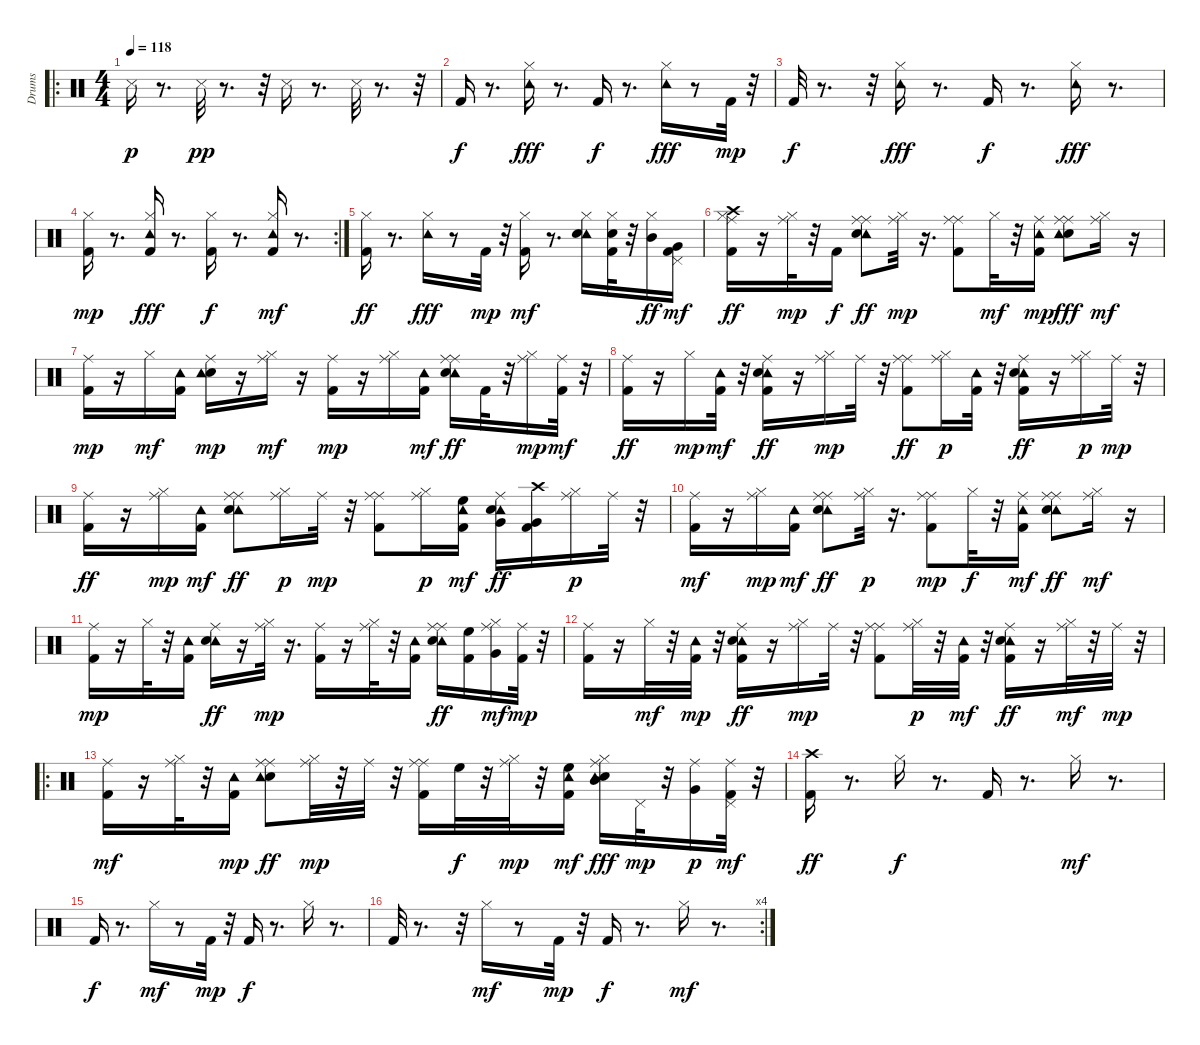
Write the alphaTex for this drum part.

\track ("Drums" "Drums") {instrument percussion}
\staff {score}
\articulation defaults
\ro
\ts (4 4)
\tempo 118
\clef neutral
\ks c "Snare (side stick) 3".16{dy p}
r.8{d} "Snare (side stick) 3".32{dy pp} r.8{d} r.32 "Snare (side stick) 3".16 r.8{d} "Snare (side stick) 3".32 r.8{d} r.32 |
"Kick (hit) 2".16{dy f} r.8{d} ("Hi-Hat (closed)" "Tambourine (hit)").16{dy fff} r.8{d} "Kick (hit) 2".16{dy f} r.8{d} ("Tambourine (hit)" "Hi-Hat (closed)").16{dy fff} r.8 "Kick (hit) 2".32{dy mp} r.32 |
"Kick (hit) 2".32{dy f} r.8{d} r.32 ("Hi-Hat (closed)" "Tambourine (hit)").16{dy fff} r.8{d} "Kick (hit) 2".16{dy f} r.8{d} ("Hi-Hat (closed)" "Tambourine (hit)").16{dy fff} r.8{d} |
\rc 2
("Hi-Hat (closed)" "Kick (hit) 2").16{dy mp} r.8{d} ("Kick (hit) 2" "Hi-Hat (closed)" "Tambourine (hit)").16{dy fff} r.8{d} ("Kick (hit) 2" "Hi-Hat (closed)").16{dy f} r.8{d} ("Tambourine (hit)" "Kick (hit) 2" "Hi-Hat (closed)").16{dy mf} r.8{d} |
("Hi-Hat (closed)" "Kick (hit) 2").16{dy ff} r.8{d} ("Hi-Hat (closed)" "Tambourine (hit)").16{dy fff} r.8 "Kick (hit) 2".32{dy mp} r.32 ("Kick (hit) 2" "Hi-Hat (closed)").16{dy mf} r.8{d} ("Hi-Hat (closed)" "Tambourine (hit)" "Electric Snare (hit)").16 ("Kick (hit) 2" "Electric Snare (hit)" "Hi-Hat (closed)").32 r.32 ("Hi-Hat (closed)" "Mid Tom (hit)").16{dy ff} ("Kick (hit) 2" "Pedal Hi-Hat (hit)" "Very Low Tom (hit)").16{dy mf} |
("Hi-Hat (closed)" "Kick (hit) 2" "Ride (middle)" "Crash high (hit)").16{dy ff} r.16 ("Ride (middle)" "Hi-Hat (closed)").32{dy mp} r.32 "Kick (hit) 2".16{dy f} ("Ride (middle)" "Tambourine (hit)" "Ride (middle)" "Electric Snare (hit)").8{dy ff} ("Ride (middle)" "Hi-Hat (closed)").32{dy mp} r.16{d} ("Ride (middle)" "Kick (hit) 2" "Ride (middle)").8 "Hi-Hat (closed)".32{dy mf} r.32 ("Kick (hit) 2" "Ride (middle)" "Tambourine (hit)").16{dy mp} ("Ride (middle)" "Ride (middle)" "Electric Snare (hit)" "Tambourine (hit)").8{dy fff} ("Ride (middle)" "Hi-Hat (closed)").16{dy mf} r.16 |
("Kick (hit) 2" "Ride (middle)").16{dy mp} r.16 "Hi-Hat (closed)".16{dy mf} ("Kick (hit) 2" "Tambourine (hit)").16 ("Electric Snare (hit)" "Tambourine (hit)" "Ride (middle)").16{dy mp} r.16 ("Ride (middle)" "Hi-Hat (closed)").16{dy mf} r.16 ("Kick (hit) 2" "Ride (middle)").16{dy mp} r.16 ("Hi-Hat (closed)" "Ride (middle)").16 ("Kick (hit) 2" "Tambourine (hit)").16{dy mf} ("Ride (middle)" "Ride (middle)" "Tambourine (hit)" "Electric Snare (hit)").16{dy ff} "Kick (hit) 2".32 r.32 ("Hi-Hat (closed)" "Ride (middle)").16{dy mp} ("Ride (middle)" "Kick (hit) 2").32{dy mf} r.32 |
("Ride (middle)" "Kick (hit) 2").16{dy ff} r.16 "Hi-Hat (closed)".16{dy mp} ("Kick (hit) 2" "Tambourine (hit)").32{dy mf} r.32 ("Ride (middle)" "Kick (hit) 2" "Tambourine (hit)" "Electric Snare (hit)").16{dy ff} r.16 ("Hi-Hat (closed)" "Ride (middle)").16{dy mp} "Ride (middle)".32 r.32 ("Ride (middle)" "Ride (middle)" "Kick (hit) 2").8{dy ff} ("Ride (middle)" "Hi-Hat (closed)").16{dy p} ("Kick (hit) 2" "Tambourine (hit)").32 r.32 ("Kick (hit) 2" "Tambourine (hit)" "Ride (middle)" "Electric Snare (hit)").16{dy ff} r.16 ("Hi-Hat (closed)" "Ride (middle)").16{dy p} "Ride (middle)".32{dy mp} r.32 |
("Ride (middle)" "Kick (hit) 2").16{dy ff} r.16 ("Ride (middle)" "Hi-Hat (closed)").16{dy mp} ("Kick (hit) 2" "Tambourine (hit)").16{dy mf} ("Ride (middle)" "Ride (middle)" "Tambourine (hit)" "Electric Snare (hit)").8{dy ff} ("Hi-Hat (closed)" "Ride (middle)").16{dy p} "Ride (middle)".32{dy mp} r.32 ("Ride (middle)" "Kick (hit) 2" "Ride (middle)").8 ("Hi-Hat (closed)" "Ride (middle)").16{dy p} ("Kick (hit) 2" "Tambourine (hit)" "High Floor Tom (hit)").16{dy mf} ("Very Low Tom (hit)" "Ride (middle)" "Tambourine (hit)" "Electric Snare (hit)").16{dy ff} ("Kick (hit) 2" "Very Low Tom (hit)" "Crash high (hit)").16 ("Hi-Hat (closed)" "Ride (middle)").16{dy p} "Ride (middle)".32 r.32 |
("Ride (middle)" "Kick (hit) 2").16{dy mf} r.16 ("Hi-Hat (closed)" "Ride (middle)").16{dy mp} ("Kick (hit) 2" "Tambourine (hit)").16{dy mf} ("Ride (middle)" "Ride (middle)" "Tambourine (hit)" "Electric Snare (hit)").8{dy ff} ("Hi-Hat (closed)" "Ride (middle)").32{dy p} r.16{d} ("Kick (hit) 2" "Ride (middle)" "Ride (middle)").8{dy mp} "Hi-Hat (closed)".32{dy f} r.32 ("Ride (middle)" "Kick (hit) 2" "Tambourine (hit)").16{dy mf} ("Ride (middle)" "Ride (middle)" "Tambourine (hit)" "Electric Snare (hit)").8{dy ff} ("Ride (middle)" "Hi-Hat (closed)").16{dy mf} r.16 |
("Kick (hit) 2" "Ride (middle)").16{dy mp} r.16 "Hi-Hat (closed)".32 r.32 ("Kick (hit) 2" "Tambourine (hit)").16 ("Tambourine (hit)" "Ride (middle)" "Electric Snare (hit)").16{dy ff} r.16 ("Ride (middle)" "Hi-Hat (closed)").32{dy mp} r.16{d} ("Ride (middle)" "Kick (hit) 2").16 r.16 ("Ride (middle)" "Hi-Hat (closed)").32 r.32 ("Kick (hit) 2" "Tambourine (hit)").16 ("Ride (middle)" "Ride (middle)" "Tambourine (hit)" "Electric Snare (hit)").16{dy ff} ("Kick (hit) 2" "High Floor Tom (hit)").16 ("Ride (middle)" "Very Low Tom (hit)" "Hi-Hat (closed)").16{dy mf} ("Ride (middle)" "Kick (hit) 2").32{dy mp} r.32 |
("Kick (hit) 2" "Ride (middle)").16 r.16 "Hi-Hat (closed)".32{dy mf} r.32 ("Kick (hit) 2" "Tambourine (hit)").32{dy mp} r.32 ("Kick (hit) 2" "Ride (middle)" "Tambourine (hit)" "Electric Snare (hit)").16{dy ff} r.16 ("Ride (middle)" "Hi-Hat (closed)").16{dy mp} "Ride (middle)".32 r.32 ("Ride (middle)" "Kick (hit) 2" "Ride (middle)").8 ("Ride (middle)" "Hi-Hat (closed)").32{dy p} r.32 ("Kick (hit) 2" "Tambourine (hit)").32{dy mf} r.32 ("Kick (hit) 2" "Ride (middle)" "Tambourine (hit)" "Electric Snare (hit)").16{dy ff} r.16 ("Ride (middle)" "Hi-Hat (closed)").32{dy mf} r.32 "Ride (middle)".32{dy mp} r.32 |
\ro
("Kick (hit) 2" "Ride (middle)").16{dy mf} r.16 ("Ride (middle)" "Hi-Hat (closed)").32 r.32 ("Kick (hit) 2" "Tambourine (hit)").16{dy mp} ("Ride (middle)" "Ride (middle)" "Electric Snare (hit)" "Tambourine (hit)").8{dy ff} ("Ride (middle)" "Hi-Hat (closed)").32{dy mp} r.32 "Ride (middle)".32 r.32 ("Ride (middle)" "Kick (hit) 2" "Ride (middle)").16 "High Floor Tom (hit)".32{dy f} r.32 ("Ride (middle)" "Hi-Hat (closed)").32{dy mp} r.32 ("Kick (hit) 2" "Tambourine (hit)" "High Floor Tom (hit)").16{dy mf} ("Mid Tom (hit)" "Ride (middle)" "Hi-Hat (closed)" "Electric Snare (hit)" "Tambourine (hit)").16{dy fff} "Pedal Hi-Hat (hit)".32{dy mp} r.32 ("Very Low Tom (hit)" "Ride (middle)").16{dy p} ("Ride (middle)" "Kick (hit) 2" "Pedal Hi-Hat (hit)").32{dy mf} r.32 |
("Kick (hit) 2" "Crash high (hit)").16{dy ff} r.8{d} "Hi-Hat (closed)".16{dy f} r.8{d} "Kick (hit) 2".16 r.8{d} "Hi-Hat (closed)".16{dy mf} r.8{d} |
"Kick (hit) 2".16{dy f} r.8{d} "Hi-Hat (closed)".16{dy mf} r.8 "Kick (hit) 2".32{dy mp} r.32 "Kick (hit) 2".16{dy f} r.8{d} "Hi-Hat (closed)".16 r.8{d} |
\rc 4 "Kick (hit) 2".32
r.8{d} r.32 "Hi-Hat (closed)".16{dy mf} r.8 "Kick (hit) 2".32{dy mp} r.32 "Kick (hit) 2".16{dy f} r.8{d} "Hi-Hat (closed)".16{dy mf} r.8{d}
